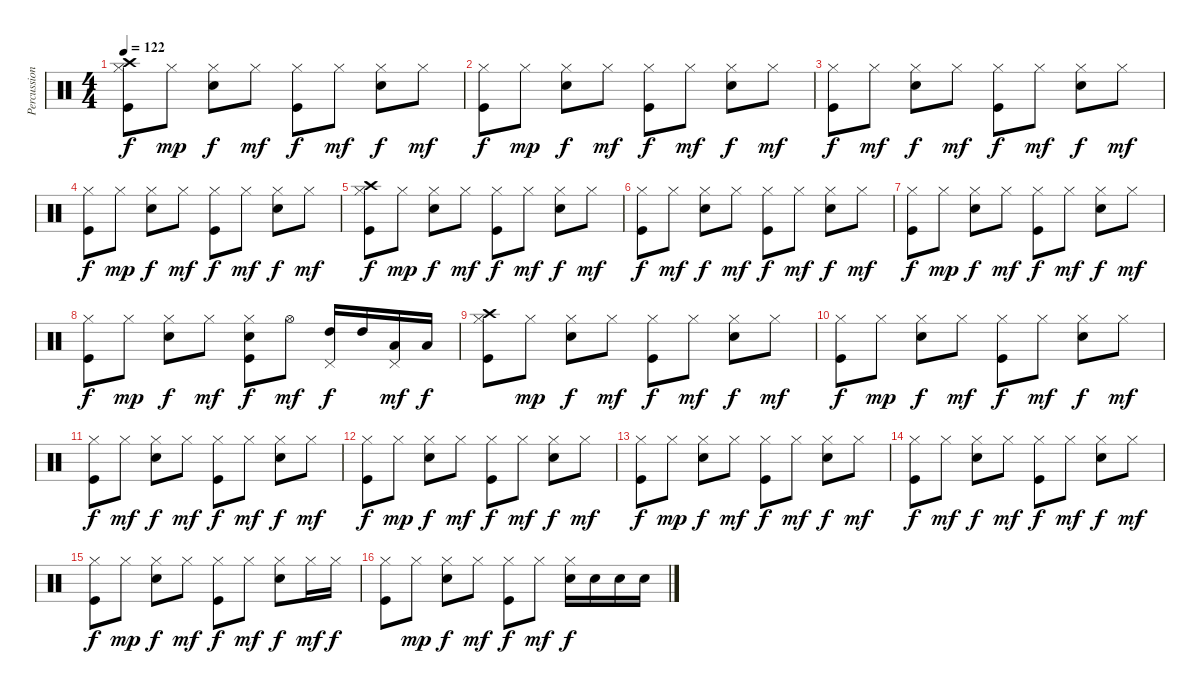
\track ("Percussioni" "Percussion") {instrument percussion}
\staff {score}
\articulation defaults
\ts (4 4)
\tempo 122
\clef neutral
\ks c
("Crash high (hit)" "Hi-Hat (closed)" "Kick (hit)").8{dy f} "Hi-Hat (closed)".8{dy mp} ("Hi-Hat (closed)" "Snare (hit) 2").8{dy f} "Hi-Hat (closed)".8{dy mf} ("Hi-Hat (closed)" "Kick (hit)").8{dy f} "Hi-Hat (closed)".8{dy mf} ("Hi-Hat (closed)" "Snare (hit) 2").8{dy f} "Hi-Hat (closed)".8{dy mf} |
("Hi-Hat (closed)" "Kick (hit)").8{dy f} "Hi-Hat (closed)".8{dy mp} ("Hi-Hat (closed)" "Snare (hit) 2").8{dy f} "Hi-Hat (closed)".8{dy mf} ("Hi-Hat (closed)" "Kick (hit)").8{dy f} "Hi-Hat (closed)".8{dy mf} ("Hi-Hat (closed)" "Snare (hit) 2").8{dy f} "Hi-Hat (closed)".8{dy mf} |
("Hi-Hat (closed)" "Kick (hit)").8{dy f} "Hi-Hat (closed)".8{dy mf} ("Hi-Hat (closed)" "Snare (hit) 2").8{dy f} "Hi-Hat (closed)".8{dy mf} ("Hi-Hat (closed)" "Kick (hit)").8{dy f} "Hi-Hat (closed)".8{dy mf} ("Hi-Hat (closed)" "Snare (hit) 2").8{dy f} "Hi-Hat (closed)".8{dy mf} |
("Hi-Hat (closed)" "Kick (hit)").8{dy f} "Hi-Hat (closed)".8{dy mp} ("Hi-Hat (closed)" "Snare (hit) 2").8{dy f} "Hi-Hat (closed)".8{dy mf} ("Hi-Hat (closed)" "Kick (hit)").8{dy f} "Hi-Hat (closed)".8{dy mf} ("Hi-Hat (closed)" "Snare (hit) 2").8{dy f} "Hi-Hat (closed)".8{dy mf} |
("Crash high (hit)" "Hi-Hat (closed)" "Kick (hit)").8{dy f} "Hi-Hat (closed)".8{dy mp} ("Hi-Hat (closed)" "Snare (hit) 2").8{dy f} "Hi-Hat (closed)".8{dy mf} ("Hi-Hat (closed)" "Kick (hit)").8{dy f} "Hi-Hat (closed)".8{dy mf} ("Hi-Hat (closed)" "Snare (hit) 2").8{dy f} "Hi-Hat (closed)".8{dy mf} |
("Hi-Hat (closed)" "Kick (hit)").8{dy f} "Hi-Hat (closed)".8{dy mf} ("Hi-Hat (closed)" "Snare (hit) 2").8{dy f} "Hi-Hat (closed)".8{dy mf} ("Hi-Hat (closed)" "Kick (hit)").8{dy f} "Hi-Hat (closed)".8{dy mf} ("Hi-Hat (closed)" "Snare (hit) 2").8{dy f} "Hi-Hat (closed)".8{dy mf} |
("Hi-Hat (closed)" "Kick (hit)").8{dy f} "Hi-Hat (closed)".8{dy mp} ("Hi-Hat (closed)" "Snare (hit) 2").8{dy f} "Hi-Hat (closed)".8{dy mf} ("Hi-Hat (closed)" "Kick (hit)").8{dy f} "Hi-Hat (closed)".8{dy mf} ("Hi-Hat (closed)" "Snare (hit) 2").8{dy f} "Hi-Hat (closed)".8{dy mf} |
("Hi-Hat (closed)" "Kick (hit)").8{dy f} "Hi-Hat (closed)".8{dy mp} ("Hi-Hat (closed)" "Snare (hit) 2").8{dy f} "Hi-Hat (closed)".8{dy mf} ("Hi-Hat (closed)" "Snare (hit) 2" "Kick (hit)").8{dy f} "Hi-Hat (open)".8{dy mf} ("High Tom (hit)" "Pedal Hi-Hat (hit)").16{dy f} "High Tom (hit)".16 ("Low Tom (hit)" "Pedal Hi-Hat (hit)").16{dy mf} "Low Tom (hit)".16{dy f} |
("Crash high (hit)" "Hi-Hat (closed)" "Kick (hit)").8 "Hi-Hat (closed)".8{dy mp} ("Hi-Hat (closed)" "Snare (hit) 2").8{dy f} "Hi-Hat (closed)".8{dy mf} ("Hi-Hat (closed)" "Kick (hit)").8{dy f} "Hi-Hat (closed)".8{dy mf} ("Hi-Hat (closed)" "Snare (hit) 2").8{dy f} "Hi-Hat (closed)".8{dy mf} |
("Hi-Hat (closed)" "Kick (hit)").8{dy f} "Hi-Hat (closed)".8{dy mp} ("Hi-Hat (closed)" "Snare (hit) 2").8{dy f} "Hi-Hat (closed)".8{dy mf} ("Hi-Hat (closed)" "Kick (hit)").8{dy f} "Hi-Hat (closed)".8{dy mf} ("Hi-Hat (closed)" "Snare (hit) 2").8{dy f} "Hi-Hat (closed)".8{dy mf} |
("Hi-Hat (closed)" "Kick (hit)").8{dy f} "Hi-Hat (closed)".8{dy mf} ("Hi-Hat (closed)" "Snare (hit) 2").8{dy f} "Hi-Hat (closed)".8{dy mf} ("Hi-Hat (closed)" "Kick (hit)").8{dy f} "Hi-Hat (closed)".8{dy mf} ("Hi-Hat (closed)" "Snare (hit) 2").8{dy f} "Hi-Hat (closed)".8{dy mf} |
("Hi-Hat (closed)" "Kick (hit)").8{dy f} "Hi-Hat (closed)".8{dy mp} ("Hi-Hat (closed)" "Snare (hit) 2").8{dy f} "Hi-Hat (closed)".8{dy mf} ("Hi-Hat (closed)" "Kick (hit)").8{dy f} "Hi-Hat (closed)".8{dy mf} ("Hi-Hat (closed)" "Snare (hit) 2").8{dy f} "Hi-Hat (closed)".8{dy mf} |
("Hi-Hat (closed)" "Kick (hit)").8{dy f} "Hi-Hat (closed)".8{dy mp} ("Hi-Hat (closed)" "Snare (hit) 2").8{dy f} "Hi-Hat (closed)".8{dy mf} ("Hi-Hat (closed)" "Kick (hit)").8{dy f} "Hi-Hat (closed)".8{dy mf} ("Hi-Hat (closed)" "Snare (hit) 2").8{dy f} "Hi-Hat (closed)".8{dy mf} |
("Hi-Hat (closed)" "Kick (hit)").8{dy f} "Hi-Hat (closed)".8{dy mf} ("Hi-Hat (closed)" "Snare (hit) 2").8{dy f} "Hi-Hat (closed)".8{dy mf} ("Hi-Hat (closed)" "Kick (hit)").8{dy f} "Hi-Hat (closed)".8{dy mf} ("Hi-Hat (closed)" "Snare (hit) 2").8{dy f} "Hi-Hat (closed)".8{dy mf} |
("Hi-Hat (closed)" "Kick (hit)").8{dy f} "Hi-Hat (closed)".8{dy mp} ("Hi-Hat (closed)" "Snare (hit) 2").8{dy f} "Hi-Hat (closed)".8{dy mf} ("Hi-Hat (closed)" "Kick (hit)").8{dy f} "Hi-Hat (closed)".8{dy mf} ("Hi-Hat (closed)" "Snare (hit) 2").8{dy f} "Hi-Hat (closed)".16{dy mf} "Hi-Hat (closed)".16{dy f} |
("Hi-Hat (closed)" "Kick (hit)").8 "Hi-Hat (closed)".8{dy mp} ("Hi-Hat (closed)" "Snare (hit) 2").8{dy f} "Hi-Hat (closed)".8{dy mf} ("Hi-Hat (closed)" "Kick (hit)").8{dy f} "Hi-Hat (closed)".8{dy mf} ("Hi-Hat (closed)" "Snare (hit) 2").16{dy f} "Snare (hit) 2".16 "Snare (hit) 2".16 "Snare (hit) 2".16
